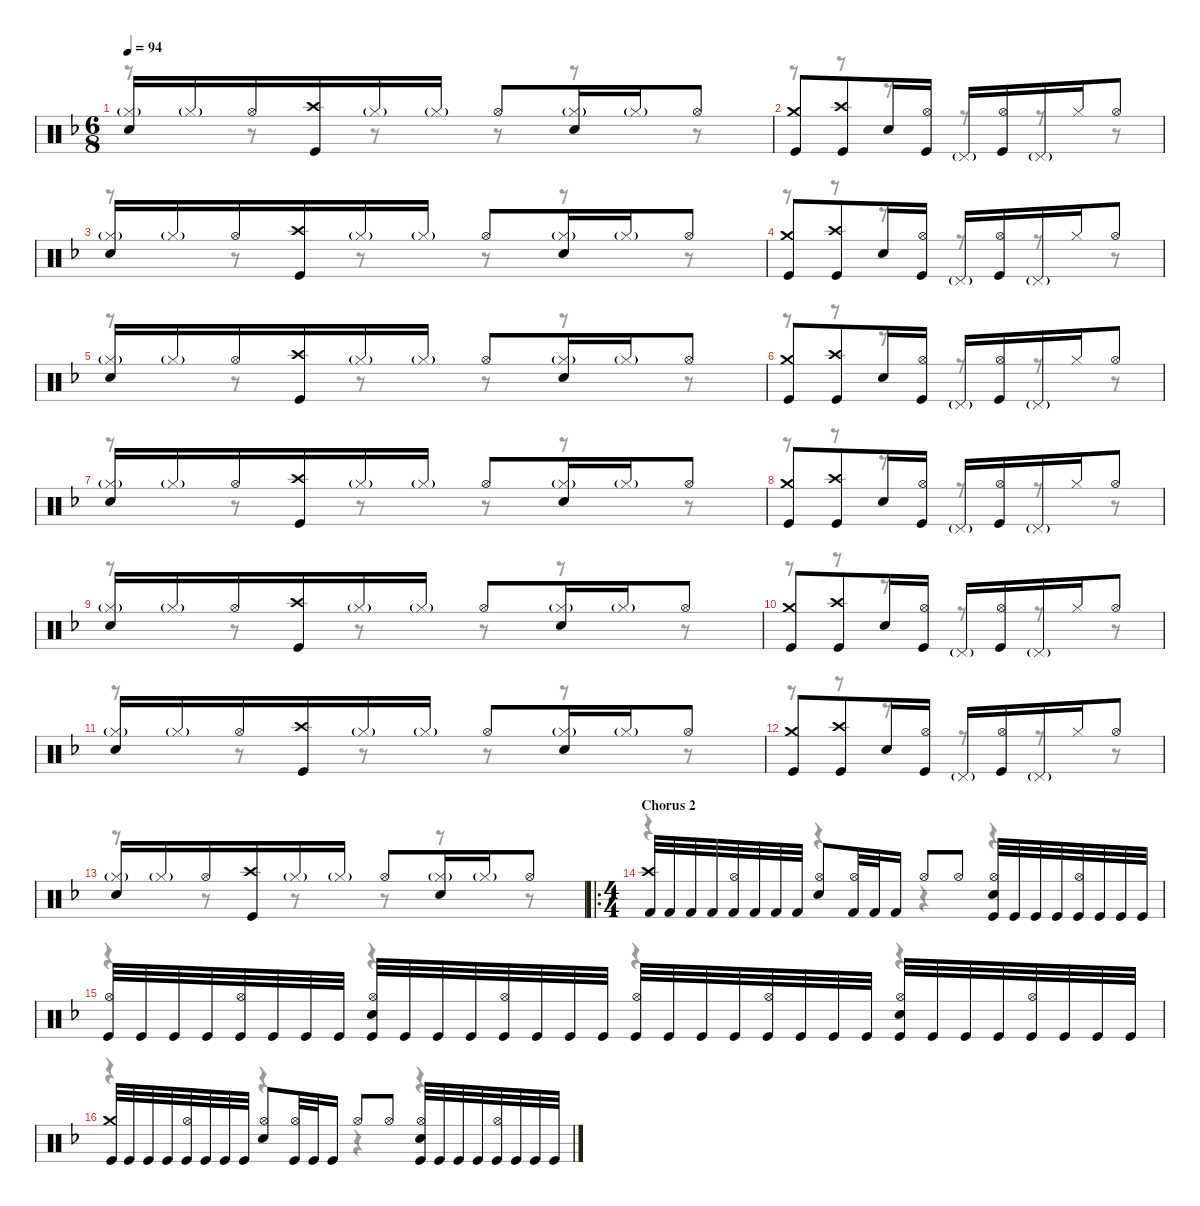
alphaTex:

\defaultSystemsLayout 4
\hideDynamics
\bracketExtendMode nobrackets
\singleTrackTrackNamePolicy hidden
\multiTrackTrackNamePolicy hidden
\otherSystemsTrackNameOrientation horizontal
\track ("M. Lopez" "drm.") {instrument percussion}
\staff {score}
\articulation defaults
\voice
\ts (6 8)
\tempo 94
\clef neutral
\ks dminor
("Hi-Hat (closed)"{g acc forcenatural} "Snare (hit) 2"{acc forcenatural}).16{dy f beam Up} "Hi-Hat (closed)"{g acc forcenatural}.16{dy ff beam Up} "Hi-Hat (open)"{acc forcenatural}.16{dy f beam Up} ("Crash high (hit)"{acc forcenatural} "Kick (hit)"{acc forcenatural}).16{beam Up} "Hi-Hat (closed)"{g acc forcenatural}.16{dy ff beam Up} "Hi-Hat (closed)"{g acc forcenatural}.16{beam Up} "Hi-Hat (open)"{acc forcenatural}.8{dy f beam Up} ("Hi-Hat (closed)"{g acc forcenatural} "Snare (hit) 2"{acc forcenatural}).16{beam Up} "Hi-Hat (closed)"{g acc forcenatural}.16{dy ff beam Up} "Hi-Hat (open)"{acc forcenatural}.8{dy f beam Up} |
("Crash medium (hit)"{acc forcenatural} "Kick (hit)"{acc forcenatural}).8{beam Up} ("Crash high (hit)"{acc forcenatural} "Kick (hit)"{acc forcenatural}).8{beam Up} "Snare (hit) 2"{acc forcenatural}.16{beam Up} ("Hi-Hat (open)"{acc forcenatural} "Kick (hit)"{acc forcenatural}).16{beam Up} "Pedal Hi-Hat (hit)"{g acc forcenatural}.16{dy ff beam Up} ("Hi-Hat (open)"{acc forcenatural} "Kick (hit)"{acc forcenatural}).16{dy f beam Up} "Pedal Hi-Hat (hit)"{g acc forcenatural}.16{dy ff beam Up} "Hi-Hat (closed)"{acc forcenatural}.16{dy f beam Up} "Hi-Hat (open)"{acc forcenatural}.8{beam Up} |
("Hi-Hat (closed)"{g acc forcenatural} "Snare (hit) 2"{acc forcenatural}).16{beam Up} "Hi-Hat (closed)"{g acc forcenatural}.16{dy ff beam Up} "Hi-Hat (open)"{acc forcenatural}.16{dy f beam Up} ("Crash high (hit)"{acc forcenatural} "Kick (hit)"{acc forcenatural}).16{beam Up} "Hi-Hat (closed)"{g acc forcenatural}.16{dy ff beam Up} "Hi-Hat (closed)"{g acc forcenatural}.16{beam Up} "Hi-Hat (open)"{acc forcenatural}.8{dy f beam Up} ("Hi-Hat (closed)"{g acc forcenatural} "Snare (hit) 2"{acc forcenatural}).16{beam Up} "Hi-Hat (closed)"{g acc forcenatural}.16{dy ff beam Up} "Hi-Hat (open)"{acc forcenatural}.8{dy f beam Up} |
("Crash medium (hit)"{acc forcenatural} "Kick (hit)"{acc forcenatural}).8{beam Up} ("Crash high (hit)"{acc forcenatural} "Kick (hit)"{acc forcenatural}).8{beam Up} "Snare (hit) 2"{acc forcenatural}.16{beam Up} ("Hi-Hat (open)"{acc forcenatural} "Kick (hit)"{acc forcenatural}).16{beam Up} "Pedal Hi-Hat (hit)"{g acc forcenatural}.16{dy ff beam Up} ("Hi-Hat (open)"{acc forcenatural} "Kick (hit)"{acc forcenatural}).16{dy f beam Up} "Pedal Hi-Hat (hit)"{g acc forcenatural}.16{dy ff beam Up} "Hi-Hat (closed)"{acc forcenatural}.16{dy f beam Up} "Hi-Hat (open)"{acc forcenatural}.8{beam Up} |
("Hi-Hat (closed)"{g acc forcenatural} "Snare (hit) 2"{acc forcenatural}).16{beam Up} "Hi-Hat (closed)"{g acc forcenatural}.16{dy ff beam Up} "Hi-Hat (open)"{acc forcenatural}.16{dy f beam Up} ("Crash high (hit)"{acc forcenatural} "Kick (hit)"{acc forcenatural}).16{beam Up} "Hi-Hat (closed)"{g acc forcenatural}.16{dy ff beam Up} "Hi-Hat (closed)"{g acc forcenatural}.16{beam Up} "Hi-Hat (open)"{acc forcenatural}.8{dy f beam Up} ("Hi-Hat (closed)"{g acc forcenatural} "Snare (hit) 2"{acc forcenatural}).16{beam Up} "Hi-Hat (closed)"{g acc forcenatural}.16{dy ff beam Up} "Hi-Hat (open)"{acc forcenatural}.8{dy f beam Up} |
("Crash medium (hit)"{acc forcenatural} "Kick (hit)"{acc forcenatural}).8{beam Up} ("Crash high (hit)"{acc forcenatural} "Kick (hit)"{acc forcenatural}).8{beam Up} "Snare (hit) 2"{acc forcenatural}.16{beam Up} ("Hi-Hat (open)"{acc forcenatural} "Kick (hit)"{acc forcenatural}).16{beam Up} "Pedal Hi-Hat (hit)"{g acc forcenatural}.16{dy ff beam Up} ("Hi-Hat (open)"{acc forcenatural} "Kick (hit)"{acc forcenatural}).16{dy f beam Up} "Pedal Hi-Hat (hit)"{g acc forcenatural}.16{dy ff beam Up} "Hi-Hat (closed)"{acc forcenatural}.16{dy f beam Up} "Hi-Hat (open)"{acc forcenatural}.8{beam Up} |
("Hi-Hat (closed)"{g acc forcenatural} "Snare (hit) 2"{acc forcenatural}).16{beam Up} "Hi-Hat (closed)"{g acc forcenatural}.16{dy ff beam Up} "Hi-Hat (open)"{acc forcenatural}.16{dy f beam Up} ("Crash high (hit)"{acc forcenatural} "Kick (hit)"{acc forcenatural}).16{beam Up} "Hi-Hat (closed)"{g acc forcenatural}.16{dy ff beam Up} "Hi-Hat (closed)"{g acc forcenatural}.16{beam Up} "Hi-Hat (open)"{acc forcenatural}.8{dy f beam Up} ("Hi-Hat (closed)"{g acc forcenatural} "Snare (hit) 2"{acc forcenatural}).16{beam Up} "Hi-Hat (closed)"{g acc forcenatural}.16{dy ff beam Up} "Hi-Hat (open)"{acc forcenatural}.8{dy f beam Up} |
("Crash medium (hit)"{acc forcenatural} "Kick (hit)"{acc forcenatural}).8{beam Up} ("Crash high (hit)"{acc forcenatural} "Kick (hit)"{acc forcenatural}).8{beam Up} "Snare (hit) 2"{acc forcenatural}.16{beam Up} ("Hi-Hat (open)"{acc forcenatural} "Kick (hit)"{acc forcenatural}).16{beam Up} "Pedal Hi-Hat (hit)"{g acc forcenatural}.16{dy ff beam Up} ("Hi-Hat (open)"{acc forcenatural} "Kick (hit)"{acc forcenatural}).16{dy f beam Up} "Pedal Hi-Hat (hit)"{g acc forcenatural}.16{dy ff beam Up} "Hi-Hat (closed)"{acc forcenatural}.16{dy f beam Up} "Hi-Hat (open)"{acc forcenatural}.8{beam Up} |
("Hi-Hat (closed)"{g acc forcenatural} "Snare (hit) 2"{acc forcenatural}).16{beam Up} "Hi-Hat (closed)"{g acc forcenatural}.16{dy ff beam Up} "Hi-Hat (open)"{acc forcenatural}.16{dy f beam Up} ("Crash high (hit)"{acc forcenatural} "Kick (hit)"{acc forcenatural}).16{beam Up} "Hi-Hat (closed)"{g acc forcenatural}.16{dy ff beam Up} "Hi-Hat (closed)"{g acc forcenatural}.16{beam Up} "Hi-Hat (open)"{acc forcenatural}.8{dy f beam Up} ("Hi-Hat (closed)"{g acc forcenatural} "Snare (hit) 2"{acc forcenatural}).16{beam Up} "Hi-Hat (closed)"{g acc forcenatural}.16{dy ff beam Up} "Hi-Hat (open)"{acc forcenatural}.8{dy f beam Up} |
("Crash medium (hit)"{acc forcenatural} "Kick (hit)"{acc forcenatural}).8{beam Up} ("Crash high (hit)"{acc forcenatural} "Kick (hit)"{acc forcenatural}).8{beam Up} "Snare (hit) 2"{acc forcenatural}.16{beam Up} ("Hi-Hat (open)"{acc forcenatural} "Kick (hit)"{acc forcenatural}).16{beam Up} "Pedal Hi-Hat (hit)"{g acc forcenatural}.16{dy ff beam Up} ("Hi-Hat (open)"{acc forcenatural} "Kick (hit)"{acc forcenatural}).16{dy f beam Up} "Pedal Hi-Hat (hit)"{g acc forcenatural}.16{dy ff beam Up} "Hi-Hat (closed)"{acc forcenatural}.16{dy f beam Up} "Hi-Hat (open)"{acc forcenatural}.8{beam Up} |
("Hi-Hat (closed)"{g acc forcenatural} "Snare (hit) 2"{acc forcenatural}).16{beam Up} "Hi-Hat (closed)"{g acc forcenatural}.16{dy ff beam Up} "Hi-Hat (open)"{acc forcenatural}.16{dy f beam Up} ("Crash high (hit)"{acc forcenatural} "Kick (hit)"{acc forcenatural}).16{beam Up} "Hi-Hat (closed)"{g acc forcenatural}.16{dy ff beam Up} "Hi-Hat (closed)"{g acc forcenatural}.16{beam Up} "Hi-Hat (open)"{acc forcenatural}.8{dy f beam Up} ("Hi-Hat (closed)"{g acc forcenatural} "Snare (hit) 2"{acc forcenatural}).16{beam Up} "Hi-Hat (closed)"{g acc forcenatural}.16{dy ff beam Up} "Hi-Hat (open)"{acc forcenatural}.8{dy f beam Up} |
("Crash medium (hit)"{acc forcenatural} "Kick (hit)"{acc forcenatural}).8{beam Up} ("Crash high (hit)"{acc forcenatural} "Kick (hit)"{acc forcenatural}).8{beam Up} "Snare (hit) 2"{acc forcenatural}.16{beam Up} ("Hi-Hat (open)"{acc forcenatural} "Kick (hit)"{acc forcenatural}).16{beam Up} "Pedal Hi-Hat (hit)"{g acc forcenatural}.16{dy ff beam Up} ("Hi-Hat (open)"{acc forcenatural} "Kick (hit)"{acc forcenatural}).16{dy f beam Up} "Pedal Hi-Hat (hit)"{g acc forcenatural}.16{dy ff beam Up} "Hi-Hat (closed)"{acc forcenatural}.16{dy f beam Up} "Hi-Hat (open)"{acc forcenatural}.8{beam Up} |
("Hi-Hat (closed)"{g acc forcenatural} "Snare (hit) 2"{acc forcenatural}).16{beam Up} "Hi-Hat (closed)"{g acc forcenatural}.16{dy ff beam Up} "Hi-Hat (open)"{acc forcenatural}.16{dy f beam Up} ("Crash high (hit)"{acc forcenatural} "Kick (hit)"{acc forcenatural}).16{beam Up} "Hi-Hat (closed)"{g acc forcenatural}.16{dy ff beam Up} "Hi-Hat (closed)"{g acc forcenatural}.16{beam Up} "Hi-Hat (open)"{acc forcenatural}.8{dy f beam Up} ("Hi-Hat (closed)"{g acc forcenatural} "Snare (hit) 2"{acc forcenatural}).16{beam Up} "Hi-Hat (closed)"{g acc forcenatural}.16{dy ff beam Up} "Hi-Hat (open)"{acc forcenatural}.8{dy f beam Up} |
\ro
\ts (4 4)
\beaming (8 2 2 2 2)
\section ("" "Chorus 2")
("Crash high (hit)"{acc forcenatural} "Kick (hit) 2"{acc forcenatural}).32{beam Up} "Kick (hit) 2"{acc forcenatural}.32{beam Up} "Kick (hit) 2"{acc forcenatural}.32{beam Up} "Kick (hit) 2"{acc forcenatural}.32{beam Up} ("Hi-Hat (open)"{acc forcenatural} "Kick (hit) 2"{acc forcenatural}).32{beam Up} "Kick (hit) 2"{acc forcenatural}.32{beam Up} "Kick (hit) 2"{acc forcenatural}.32{beam Up} "Kick (hit) 2"{acc forcenatural}.32{beam Up} ("Hi-Hat (open)"{acc forcenatural} "Snare (hit) 2"{acc forcenatural}).8{beam Up} ("Hi-Hat (open)"{acc forcenatural} "Kick (hit) 2"{acc forcenatural}).32{beam Up} "Kick (hit) 2"{acc forcenatural}.32{beam Up} "Kick (hit) 2"{acc forcenatural}.16{beam Up} "Hi-Hat (open)"{acc forcenatural}.8{beam Up} "Hi-Hat (open)"{acc forcenatural}.8{beam Up} ("Hi-Hat (open)"{acc forcenatural} "Snare (hit) 2"{acc forcenatural} "Kick (hit)"{acc forcenatural}).32{beam Up} "Kick (hit)"{acc forcenatural}.32{beam Up} "Kick (hit)"{acc forcenatural}.32{beam Up} "Kick (hit)"{acc forcenatural}.32{beam Up} ("Hi-Hat (open)"{acc forcenatural} "Kick (hit)"{acc forcenatural}).32{beam Up} "Kick (hit)"{acc forcenatural}.32{beam Up} "Kick (hit)"{acc forcenatural}.32{beam Up} "Kick (hit)"{acc forcenatural}.32{beam Up} |
("Hi-Hat (open)"{acc forcenatural} "Kick (hit)"{acc forcenatural}).32{beam Up} "Kick (hit)"{acc forcenatural}.32{beam Up} "Kick (hit)"{acc forcenatural}.32{beam Up} "Kick (hit)"{acc forcenatural}.32{beam Up} ("Hi-Hat (open)"{acc forcenatural} "Kick (hit)"{acc forcenatural}).32{beam Up} "Kick (hit)"{acc forcenatural}.32{beam Up} "Kick (hit)"{acc forcenatural}.32{beam Up} "Kick (hit)"{acc forcenatural}.32{beam Up} ("Hi-Hat (open)"{acc forcenatural} "Snare (hit) 2"{acc forcenatural} "Kick (hit)"{acc forcenatural}).32{beam Up} "Kick (hit)"{acc forcenatural}.32{beam Up} "Kick (hit)"{acc forcenatural}.32{beam Up} "Kick (hit)"{acc forcenatural}.32{beam Up} ("Hi-Hat (open)"{acc forcenatural} "Kick (hit)"{acc forcenatural}).32{beam Up} "Kick (hit)"{acc forcenatural}.32{beam Up} "Kick (hit)"{acc forcenatural}.32{beam Up} "Kick (hit)"{acc forcenatural}.32{beam Up} ("Hi-Hat (open)"{acc forcenatural} "Kick (hit)"{acc forcenatural}).32{beam Up} "Kick (hit)"{acc forcenatural}.32{beam Up} "Kick (hit)"{acc forcenatural}.32{beam Up} "Kick (hit)"{acc forcenatural}.32{beam Up} ("Hi-Hat (open)"{acc forcenatural} "Kick (hit)"{acc forcenatural}).32{beam Up} "Kick (hit)"{acc forcenatural}.32{beam Up} "Kick (hit)"{acc forcenatural}.32{beam Up} "Kick (hit)"{acc forcenatural}.32{beam Up} ("Hi-Hat (open)"{acc forcenatural} "Snare (hit) 2"{acc forcenatural} "Kick (hit)"{acc forcenatural}).32{beam Up} "Kick (hit)"{acc forcenatural}.32{beam Up} "Kick (hit)"{acc forcenatural}.32{beam Up} "Kick (hit)"{acc forcenatural}.32{beam Up} ("Hi-Hat (open)"{acc forcenatural} "Kick (hit)"{acc forcenatural}).32{beam Up} "Kick (hit)"{acc forcenatural}.32{beam Up} "Kick (hit)"{acc forcenatural}.32{beam Up} "Kick (hit)"{acc forcenatural}.32{beam Up} |
("Crash medium (hit)"{acc forcenatural} "Kick (hit)"{acc forcenatural}).32{beam Up} "Kick (hit)"{acc forcenatural}.32{beam Up} "Kick (hit)"{acc forcenatural}.32{beam Up} "Kick (hit)"{acc forcenatural}.32{beam Up} ("Hi-Hat (open)"{acc forcenatural} "Kick (hit)"{acc forcenatural}).32{beam Up} "Kick (hit)"{acc forcenatural}.32{beam Up} "Kick (hit)"{acc forcenatural}.32{beam Up} "Kick (hit)"{acc forcenatural}.32{beam Up} ("Hi-Hat (open)"{acc forcenatural} "Snare (hit) 2"{acc forcenatural}).8{beam Up} ("Hi-Hat (open)"{acc forcenatural} "Kick (hit)"{acc forcenatural}).32{beam Up} "Kick (hit)"{acc forcenatural}.32{beam Up} "Kick (hit)"{acc forcenatural}.16{beam Up} "Hi-Hat (open)"{acc forcenatural}.8{beam Up} "Hi-Hat (open)"{acc forcenatural}.8{beam Up} ("Hi-Hat (open)"{acc forcenatural} "Snare (hit) 2"{acc forcenatural} "Kick (hit)"{acc forcenatural}).32{beam Up} "Kick (hit)"{acc forcenatural}.32{beam Up} "Kick (hit)"{acc forcenatural}.32{beam Up} "Kick (hit)"{acc forcenatural}.32{beam Up} ("Hi-Hat (open)"{acc forcenatural} "Kick (hit)"{acc forcenatural}).32{beam Up} "Kick (hit)"{acc forcenatural}.32{beam Up} "Kick (hit)"{acc forcenatural}.32{beam Up} "Kick (hit)"{acc forcenatural}.32{beam Up}
\voice
\clef neutral
\ottava regular
\simile none
\ks dminor
r.8{dy mf beam Down} r.8{beam Down} r.8{beam Down} r.8{beam Down} r.8{beam Down} r.8{beam Down} |
r.8{beam Down} r.8{beam Down} r.8{beam Down} r.8{beam Down} r.8{beam Down} r.8{beam Down} |
r.8{beam Down} r.8{beam Down} r.8{beam Down} r.8{beam Down} r.8{beam Down} r.8{beam Down} |
r.8{beam Down} r.8{beam Down} r.8{beam Down} r.8{beam Down} r.8{beam Down} r.8{beam Down} |
r.8{beam Down} r.8{beam Down} r.8{beam Down} r.8{beam Down} r.8{beam Down} r.8{beam Down} |
r.8{beam Down} r.8{beam Down} r.8{beam Down} r.8{beam Down} r.8{beam Down} r.8{beam Down} |
r.8{beam Down} r.8{beam Down} r.8{beam Down} r.8{beam Down} r.8{beam Down} r.8{beam Down} |
r.8{beam Down} r.8{beam Down} r.8{beam Down} r.8{beam Down} r.8{beam Down} r.8{beam Down} |
r.8{beam Down} r.8{beam Down} r.8{beam Down} r.8{beam Down} r.8{beam Down} r.8{beam Down} |
r.8{beam Down} r.8{beam Down} r.8{beam Down} r.8{beam Down} r.8{beam Down} r.8{beam Down} |
r.8{beam Down} r.8{beam Down} r.8{beam Down} r.8{beam Down} r.8{beam Down} r.8{beam Down} |
r.8{beam Down} r.8{beam Down} r.8{beam Down} r.8{beam Down} r.8{beam Down} r.8{beam Down} |
r.8{beam Down} r.8{beam Down} r.8{beam Down} r.8{beam Down} r.8{beam Down} r.8{beam Down} |
r.4{beam Down} r.4{beam Down} r.4{beam Down} r.4{beam Down} |
r.4{beam Down} r.4{beam Down} r.4{beam Down} r.4{beam Down} |
r.4{beam Down} r.4{beam Down} r.4{beam Down} r.4{beam Down}
